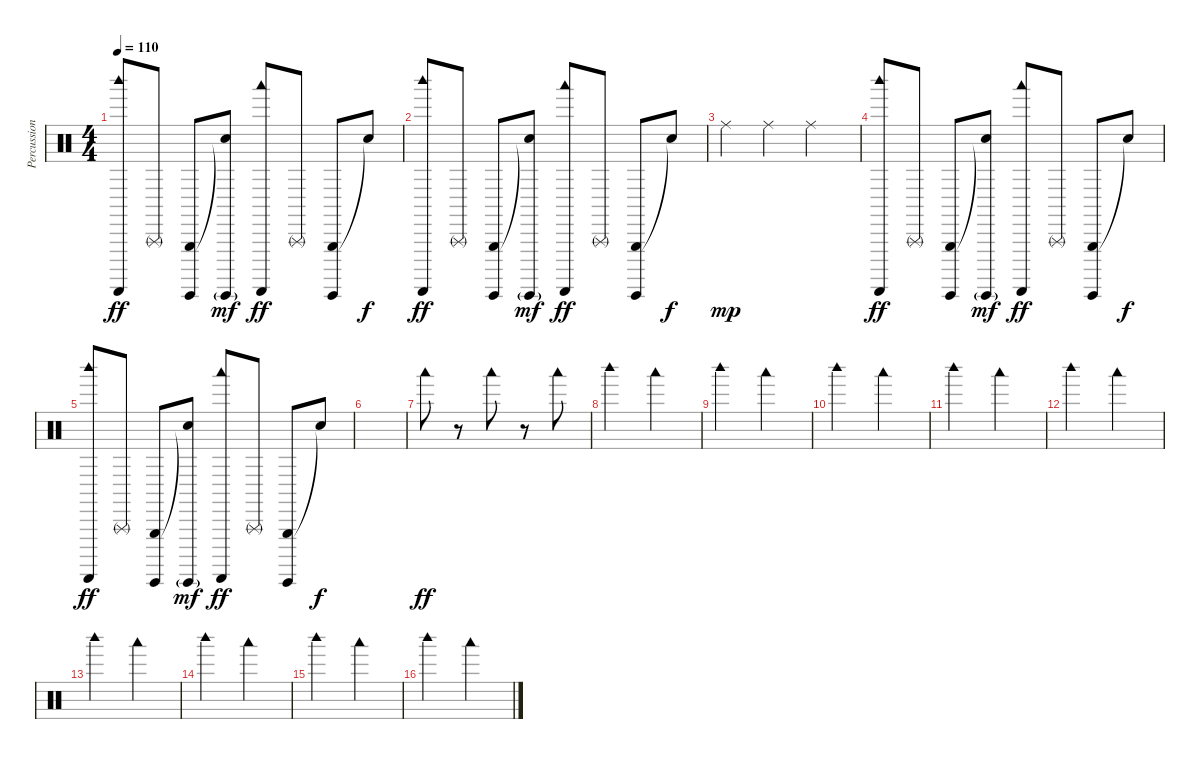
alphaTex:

\track ("Percussion" "Percussion") {instrument percussion}
\staff {score}
\articulation defaults
\ts (4 4)
\tempo 110
\clef neutral
\ks c
("Woodblock high (hit)" "Guiro (scrap-return)").8{dy ff} "Triangle (rnute)".8 ("Triangle (hit)" "Guiro (hit)").8 ("Snare (hit)"{t} "Guiro (hit)"{g}).8{dy mf} ("Woodblock low (hit)" "Guiro (scrap-return)").8{dy ff} "Triangle (rnute)".8 ("Triangle (hit)" "Guiro (hit)").8 "Snare (hit)"{t}.8{dy f} |
("Woodblock high (hit)" "Guiro (scrap-return)").8{dy ff} "Triangle (rnute)".8 ("Triangle (hit)" "Guiro (hit)").8 ("Snare (hit)"{t} "Guiro (hit)"{g}).8{dy mf} ("Woodblock low (hit)" "Guiro (scrap-return)").8{dy ff} "Triangle (rnute)".8 ("Triangle (hit)" "Guiro (hit)").8 "Snare (hit)"{t}.8{dy f} |
"Ride (middle)".4{dy mp} "Ride (middle)".4 "Ride (middle)".2 |
("Woodblock high (hit)" "Guiro (scrap-return)").8{dy ff} "Triangle (rnute)".8 ("Triangle (hit)" "Guiro (hit)").8 ("Snare (hit)"{t} "Guiro (hit)"{g}).8{dy mf} ("Woodblock low (hit)" "Guiro (scrap-return)").8{dy ff} "Triangle (rnute)".8 ("Triangle (hit)" "Guiro (hit)").8 "Snare (hit)"{t}.8{dy f} |
("Woodblock high (hit)" "Guiro (scrap-return)").8{dy ff} "Triangle (rnute)".8 ("Triangle (hit)" "Guiro (hit)").8 ("Snare (hit)"{t} "Guiro (hit)"{g}).8{dy mf} ("Woodblock low (hit)" "Guiro (scrap-return)").8{dy ff} "Triangle (rnute)".8 ("Triangle (hit)" "Guiro (hit)").8 "Snare (hit)"{t}.8{dy f} |
|
"Woodblock low (hit)".8{dy ff} r.8 "Woodblock low (hit)".8 r.8 "Woodblock low (hit)".8 |
"Woodblock high (hit)".2 "Woodblock low (hit)".2 |
"Woodblock high (hit)".2 "Woodblock low (hit)".2 |
"Woodblock high (hit)".2 "Woodblock low (hit)".2 |
"Woodblock high (hit)".2 "Woodblock low (hit)".2 |
"Woodblock high (hit)".2 "Woodblock low (hit)".2 |
"Woodblock high (hit)".2 "Woodblock low (hit)".2 |
"Woodblock high (hit)".2 "Woodblock low (hit)".2 |
"Woodblock high (hit)".2 "Woodblock low (hit)".2 |
"Woodblock high (hit)".2 "Woodblock low (hit)".2
